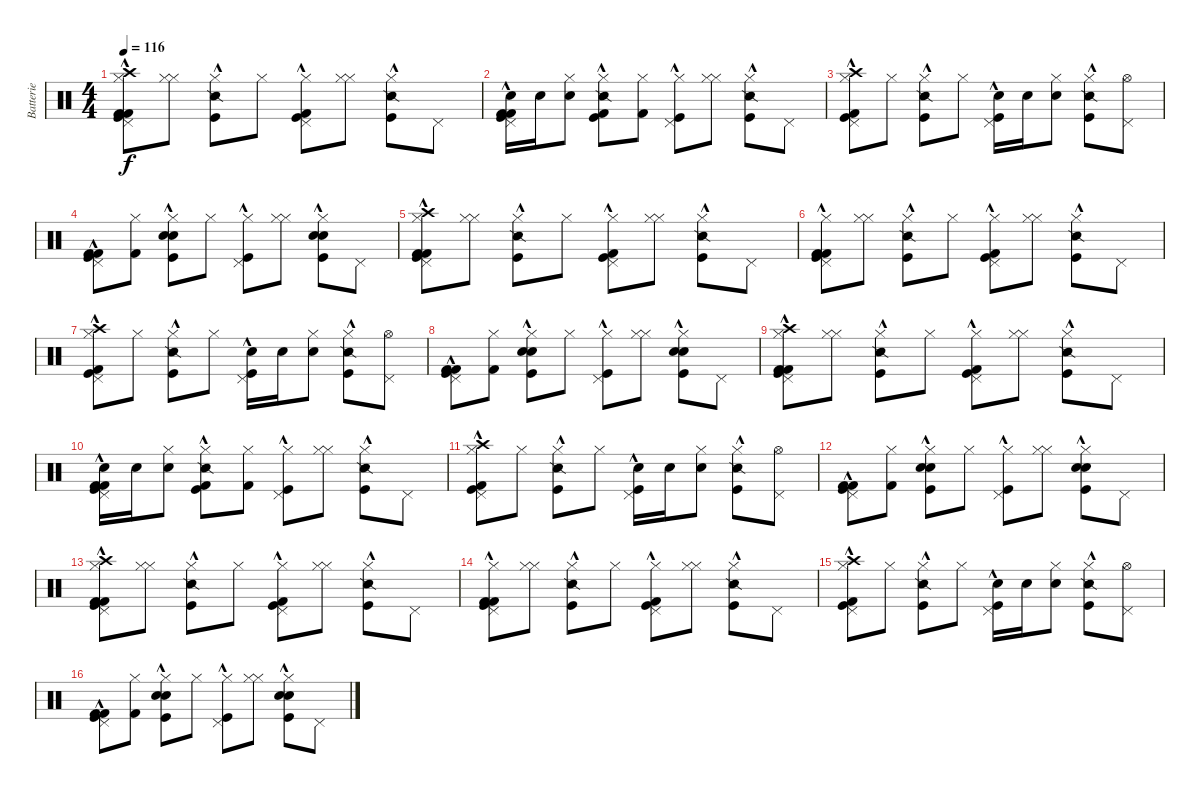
\track ("Batterie" "Batterie") {instrument percussion}
\staff {score}
\articulation defaults
\ts (4 4)
\tempo 116
\clef neutral
\ks c
("Kick (hit) 2"{hac} "Hi-Hat (closed)" "Kick (hit) 2"{hac} "Pedal Hi-Hat (hit)" "Kick (hit)"{hac} "Crash high (hit)"{hac}).8{dy f} ("Hi-Hat (closed)" "Hi-Hat (closed)").8 ("Snare (side stick) 2"{hac} "Hi-Hat (closed)" "Kick (hit)"{hac}).8 "Hi-Hat (closed)".8 ("Kick (hit) 2"{hac} "Hi-Hat (closed)" "Pedal Hi-Hat (hit)" "Kick (hit)"{hac}).8 ("Hi-Hat (closed)" "Hi-Hat (closed)").8 ("Snare (side stick) 2"{hac} "Hi-Hat (closed)" "Kick (hit)"{hac}).8 "Pedal Hi-Hat (hit)".8 |
("Kick (hit) 2"{hac} "Snare (hit) 2" "Kick (hit) 2"{hac} "Pedal Hi-Hat (hit)" "Kick (hit)"{hac}).16 "Snare (hit) 2".16 ("Electric Snare (hit)" "Hi-Hat (closed)").8 ("Snare (side stick) 2"{hac} "Kick (hit) 2" "Hi-Hat (closed)" "Kick (hit)"{hac}).8 ("Kick (hit) 2" "Hi-Hat (closed)").8 ("Hi-Hat (closed)" "Pedal Hi-Hat (hit)" "Kick (hit)"{hac}).8 ("Hi-Hat (closed)" "Hi-Hat (closed)").8 ("Snare (side stick) 2"{hac} "Hi-Hat (closed)" "Kick (hit)"{hac}).8 "Pedal Hi-Hat (hit)".8 |
("Hi-Hat (closed)" "Kick (hit) 2"{hac} "Pedal Hi-Hat (hit)" "Kick (hit)"{hac} "Crash high (hit)"{hac}).8 "Hi-Hat (closed)".8 ("Snare (side stick) 2"{hac} "Hi-Hat (closed)" "Kick (hit)"{hac}).8 "Hi-Hat (closed)".8 ("Electric Snare (hit)" "Pedal Hi-Hat (hit)" "Kick (hit)"{hac}).16 "Electric Snare (hit)".16 ("Electric Snare (hit)" "Hi-Hat (closed)").8 ("Snare (side stick) 2" "Hi-Hat (closed)" "Kick (hit)"{hac}).8 ("Hi-Hat (open)" "Pedal Hi-Hat (hit)").8 |
("Kick (hit) 2" "Kick (hit) 2" "Pedal Hi-Hat (hit)" "Kick (hit)"{hac}).8 ("Kick (hit) 2" "Hi-Hat (closed)").8 ("Snare (hit) 2"{hac} "Electric Snare (hit)"{hac} "Hi-Hat (closed)" "Kick (hit)"{hac}).8 "Hi-Hat (closed)".8 ("Hi-Hat (closed)" "Pedal Hi-Hat (hit)" "Kick (hit)"{hac}).8 ("Hi-Hat (closed)" "Hi-Hat (closed)").8 ("Snare (hit) 2"{hac} "Electric Snare (hit)"{hac} "Hi-Hat (closed)" "Kick (hit)"{hac}).8 "Pedal Hi-Hat (hit)".8 |
("Kick (hit) 2"{hac} "Hi-Hat (closed)" "Kick (hit) 2"{hac} "Pedal Hi-Hat (hit)" "Kick (hit)"{hac} "Crash high (hit)"{hac}).8 ("Hi-Hat (closed)" "Hi-Hat (closed)").8 ("Snare (side stick) 2"{hac} "Hi-Hat (closed)" "Kick (hit)"{hac}).8 "Hi-Hat (closed)".8 ("Kick (hit) 2"{hac} "Hi-Hat (closed)" "Pedal Hi-Hat (hit)" "Kick (hit)"{hac}).8 ("Hi-Hat (closed)" "Hi-Hat (closed)").8 ("Snare (side stick) 2"{hac} "Hi-Hat (closed)" "Kick (hit)"{hac}).8 "Pedal Hi-Hat (hit)".8 |
("Kick (hit) 2"{hac} "Hi-Hat (closed)" "Kick (hit) 2"{hac} "Pedal Hi-Hat (hit)" "Kick (hit)"{hac}).8 ("Hi-Hat (closed)" "Hi-Hat (closed)").8 ("Snare (side stick) 2"{hac} "Hi-Hat (closed)" "Kick (hit)"{hac}).8 "Hi-Hat (closed)".8 ("Kick (hit) 2"{hac} "Hi-Hat (closed)" "Pedal Hi-Hat (hit)" "Kick (hit)"{hac}).8 ("Hi-Hat (closed)" "Hi-Hat (closed)").8 ("Snare (side stick) 2"{hac} "Hi-Hat (closed)" "Kick (hit)"{hac}).8 "Pedal Hi-Hat (hit)".8 |
("Hi-Hat (closed)" "Kick (hit) 2"{hac} "Pedal Hi-Hat (hit)" "Kick (hit)"{hac} "Crash high (hit)"{hac}).8 "Hi-Hat (closed)".8 ("Snare (side stick) 2"{hac} "Hi-Hat (closed)" "Kick (hit)"{hac}).8 "Hi-Hat (closed)".8 ("Electric Snare (hit)" "Pedal Hi-Hat (hit)" "Kick (hit)"{hac}).16 "Electric Snare (hit)".16 ("Electric Snare (hit)" "Hi-Hat (closed)").8 ("Snare (side stick) 2" "Hi-Hat (closed)" "Kick (hit)"{hac}).8 ("Hi-Hat (open)" "Pedal Hi-Hat (hit)").8 |
("Kick (hit) 2" "Kick (hit) 2" "Pedal Hi-Hat (hit)" "Kick (hit)"{hac}).8 ("Kick (hit) 2" "Hi-Hat (closed)").8 ("Snare (hit) 2"{hac} "Electric Snare (hit)"{hac} "Hi-Hat (closed)" "Kick (hit)"{hac}).8 "Hi-Hat (closed)".8 ("Hi-Hat (closed)" "Pedal Hi-Hat (hit)" "Kick (hit)"{hac}).8 ("Hi-Hat (closed)" "Hi-Hat (closed)").8 ("Snare (hit) 2"{hac} "Electric Snare (hit)"{hac} "Hi-Hat (closed)" "Kick (hit)"{hac}).8 "Pedal Hi-Hat (hit)".8 |
("Kick (hit) 2"{hac} "Hi-Hat (closed)" "Kick (hit) 2"{hac} "Pedal Hi-Hat (hit)" "Kick (hit)"{hac} "Crash high (hit)"{hac}).8 ("Hi-Hat (closed)" "Hi-Hat (closed)").8 ("Snare (side stick) 2"{hac} "Hi-Hat (closed)" "Kick (hit)"{hac}).8 "Hi-Hat (closed)".8 ("Kick (hit) 2"{hac} "Hi-Hat (closed)" "Pedal Hi-Hat (hit)" "Kick (hit)"{hac}).8 ("Hi-Hat (closed)" "Hi-Hat (closed)").8 ("Snare (side stick) 2"{hac} "Hi-Hat (closed)" "Kick (hit)"{hac}).8 "Pedal Hi-Hat (hit)".8 |
("Kick (hit) 2"{hac} "Snare (hit) 2" "Kick (hit) 2"{hac} "Pedal Hi-Hat (hit)" "Kick (hit)"{hac}).16 "Snare (hit) 2".16 ("Electric Snare (hit)" "Hi-Hat (closed)").8 ("Snare (side stick) 2"{hac} "Kick (hit) 2" "Hi-Hat (closed)" "Kick (hit)"{hac}).8 ("Kick (hit) 2" "Hi-Hat (closed)").8 ("Hi-Hat (closed)" "Pedal Hi-Hat (hit)" "Kick (hit)"{hac}).8 ("Hi-Hat (closed)" "Hi-Hat (closed)").8 ("Snare (side stick) 2"{hac} "Hi-Hat (closed)" "Kick (hit)"{hac}).8 "Pedal Hi-Hat (hit)".8 |
("Hi-Hat (closed)" "Kick (hit) 2"{hac} "Pedal Hi-Hat (hit)" "Kick (hit)"{hac} "Crash high (hit)"{hac}).8 "Hi-Hat (closed)".8 ("Snare (side stick) 2"{hac} "Hi-Hat (closed)" "Kick (hit)"{hac}).8 "Hi-Hat (closed)".8 ("Electric Snare (hit)" "Pedal Hi-Hat (hit)" "Kick (hit)"{hac}).16 "Electric Snare (hit)".16 ("Electric Snare (hit)" "Hi-Hat (closed)").8 ("Snare (side stick) 2" "Hi-Hat (closed)" "Kick (hit)"{hac}).8 ("Hi-Hat (open)" "Pedal Hi-Hat (hit)").8 |
("Kick (hit) 2" "Kick (hit) 2" "Pedal Hi-Hat (hit)" "Kick (hit)"{hac}).8 ("Kick (hit) 2" "Hi-Hat (closed)").8 ("Snare (hit) 2"{hac} "Electric Snare (hit)"{hac} "Hi-Hat (closed)" "Kick (hit)"{hac}).8 "Hi-Hat (closed)".8 ("Hi-Hat (closed)" "Pedal Hi-Hat (hit)" "Kick (hit)"{hac}).8 ("Hi-Hat (closed)" "Hi-Hat (closed)").8 ("Snare (hit) 2"{hac} "Electric Snare (hit)"{hac} "Hi-Hat (closed)" "Kick (hit)"{hac}).8 "Pedal Hi-Hat (hit)".8 |
("Kick (hit) 2"{hac} "Hi-Hat (closed)" "Kick (hit) 2"{hac} "Pedal Hi-Hat (hit)" "Kick (hit)"{hac} "Crash high (hit)"{hac}).8 ("Hi-Hat (closed)" "Hi-Hat (closed)").8 ("Snare (side stick) 2"{hac} "Hi-Hat (closed)" "Kick (hit)"{hac}).8 "Hi-Hat (closed)".8 ("Kick (hit) 2"{hac} "Hi-Hat (closed)" "Pedal Hi-Hat (hit)" "Kick (hit)"{hac}).8 ("Hi-Hat (closed)" "Hi-Hat (closed)").8 ("Snare (side stick) 2"{hac} "Hi-Hat (closed)" "Kick (hit)"{hac}).8 "Pedal Hi-Hat (hit)".8 |
("Kick (hit) 2"{hac} "Hi-Hat (closed)" "Kick (hit) 2"{hac} "Pedal Hi-Hat (hit)" "Kick (hit)"{hac}).8 ("Hi-Hat (closed)" "Hi-Hat (closed)").8 ("Snare (side stick) 2"{hac} "Hi-Hat (closed)" "Kick (hit)"{hac}).8 "Hi-Hat (closed)".8 ("Kick (hit) 2"{hac} "Hi-Hat (closed)" "Pedal Hi-Hat (hit)" "Kick (hit)"{hac}).8 ("Hi-Hat (closed)" "Hi-Hat (closed)").8 ("Snare (side stick) 2"{hac} "Hi-Hat (closed)" "Kick (hit)"{hac}).8 "Pedal Hi-Hat (hit)".8 |
("Hi-Hat (closed)" "Kick (hit) 2"{hac} "Pedal Hi-Hat (hit)" "Kick (hit)"{hac} "Crash high (hit)"{hac}).8 "Hi-Hat (closed)".8 ("Snare (side stick) 2"{hac} "Hi-Hat (closed)" "Kick (hit)"{hac}).8 "Hi-Hat (closed)".8 ("Electric Snare (hit)" "Pedal Hi-Hat (hit)" "Kick (hit)"{hac}).16 "Electric Snare (hit)".16 ("Electric Snare (hit)" "Hi-Hat (closed)").8 ("Snare (side stick) 2" "Hi-Hat (closed)" "Kick (hit)"{hac}).8 ("Hi-Hat (open)" "Pedal Hi-Hat (hit)").8 |
("Kick (hit) 2" "Kick (hit) 2" "Pedal Hi-Hat (hit)" "Kick (hit)"{hac}).8 ("Kick (hit) 2" "Hi-Hat (closed)").8 ("Snare (hit) 2"{hac} "Electric Snare (hit)"{hac} "Hi-Hat (closed)" "Kick (hit)"{hac}).8 "Hi-Hat (closed)".8 ("Hi-Hat (closed)" "Pedal Hi-Hat (hit)" "Kick (hit)"{hac}).8 ("Hi-Hat (closed)" "Hi-Hat (closed)").8 ("Snare (hit) 2"{hac} "Electric Snare (hit)"{hac} "Hi-Hat (closed)" "Kick (hit)"{hac}).8 "Pedal Hi-Hat (hit)".8
